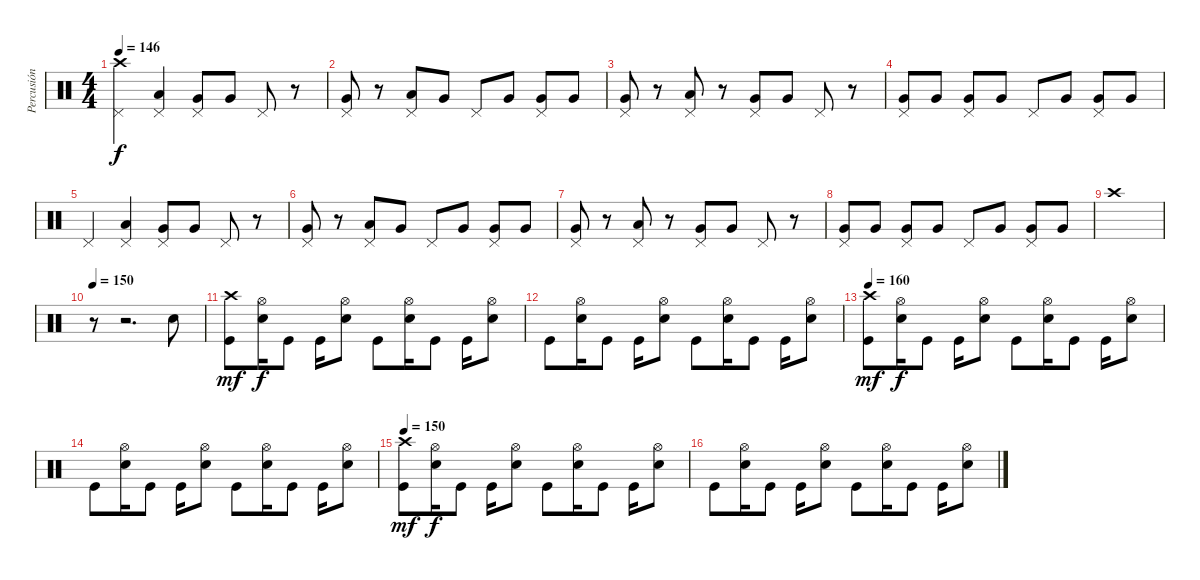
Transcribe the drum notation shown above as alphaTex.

\track ("Percusión" "Percusión") {instrument percussion}
\staff {score}
\articulation defaults
\ts (4 4)
\tempo 146
\clef neutral
\ks c
("Pedal Hi-Hat (hit)" "Crash high (hit)").4{dy f} ("Pedal Hi-Hat (hit)" "Low Tom (hit)").4 ("Pedal Hi-Hat (hit)" "Very Low Tom (hit)").8 "Very Low Tom (hit)".8 "Pedal Hi-Hat (hit)".8 r.8 |
("Pedal Hi-Hat (hit)" "Very Low Tom (hit)").8 r.8 ("Pedal Hi-Hat (hit)" "Low Tom (hit)").8 "Very Low Tom (hit)".8 "Pedal Hi-Hat (hit)".8 "Very Low Tom (hit)".8 ("Pedal Hi-Hat (hit)" "Very Low Tom (hit)").8 "Very Low Tom (hit)".8 |
("Pedal Hi-Hat (hit)" "Very Low Tom (hit)").8 r.8 ("Pedal Hi-Hat (hit)" "Low Tom (hit)").8 r.8 ("Pedal Hi-Hat (hit)" "Very Low Tom (hit)").8 "Very Low Tom (hit)".8 "Pedal Hi-Hat (hit)".8 r.8 |
("Pedal Hi-Hat (hit)" "Very Low Tom (hit)").8 "Very Low Tom (hit)".8 ("Pedal Hi-Hat (hit)" "Very Low Tom (hit)").8 "Very Low Tom (hit)".8 "Pedal Hi-Hat (hit)".8 "Very Low Tom (hit)".8 ("Pedal Hi-Hat (hit)" "Very Low Tom (hit)").8 "Very Low Tom (hit)".8 |
"Pedal Hi-Hat (hit)".4 ("Pedal Hi-Hat (hit)" "Low Tom (hit)").4 ("Pedal Hi-Hat (hit)" "Very Low Tom (hit)").8 "Very Low Tom (hit)".8 "Pedal Hi-Hat (hit)".8 r.8 |
("Pedal Hi-Hat (hit)" "Very Low Tom (hit)").8 r.8 ("Pedal Hi-Hat (hit)" "Low Tom (hit)").8 "Very Low Tom (hit)".8 "Pedal Hi-Hat (hit)".8 "Very Low Tom (hit)".8 ("Pedal Hi-Hat (hit)" "Very Low Tom (hit)").8 "Very Low Tom (hit)".8 |
("Pedal Hi-Hat (hit)" "Very Low Tom (hit)").8 r.8 ("Pedal Hi-Hat (hit)" "Low Tom (hit)").8 r.8 ("Pedal Hi-Hat (hit)" "Very Low Tom (hit)").8 "Very Low Tom (hit)".8 "Pedal Hi-Hat (hit)".8 r.8 |
("Pedal Hi-Hat (hit)" "Very Low Tom (hit)").8 "Very Low Tom (hit)".8 ("Pedal Hi-Hat (hit)" "Very Low Tom (hit)").8 "Very Low Tom (hit)".8 "Pedal Hi-Hat (hit)".8 "Very Low Tom (hit)".8 ("Pedal Hi-Hat (hit)" "Very Low Tom (hit)").8 "Very Low Tom (hit)".8 |
"Crash high (hit)".1 |
\tempo 150
r.8 r.2{d} "Snare (hit) 2".8 |
("Kick (hit)" "Crash high (hit)").8{dy mf} ("Snare (hit) 2" "Hi-Hat (open)").16{dy f} "Kick (hit)".8 "Kick (hit)".16 ("Snare (hit) 2" "Hi-Hat (open)").8 "Kick (hit)".8 ("Snare (hit) 2" "Hi-Hat (open)").16 "Kick (hit)".8 "Kick (hit)".16 ("Snare (hit) 2" "Hi-Hat (open)").8 |
"Kick (hit)".8 ("Snare (hit) 2" "Hi-Hat (open)").16 "Kick (hit)".8 "Kick (hit)".16 ("Snare (hit) 2" "Hi-Hat (open)").8 "Kick (hit)".8 ("Snare (hit) 2" "Hi-Hat (open)").16 "Kick (hit)".8 "Kick (hit)".16 ("Snare (hit) 2" "Hi-Hat (open)").8 |
\tempo 160
("Kick (hit)" "Crash high (hit)").8{dy mf} ("Snare (hit) 2" "Hi-Hat (open)").16{dy f} "Kick (hit)".8 "Kick (hit)".16 ("Snare (hit) 2" "Hi-Hat (open)").8 "Kick (hit)".8 ("Snare (hit) 2" "Hi-Hat (open)").16 "Kick (hit)".8 "Kick (hit)".16 ("Snare (hit) 2" "Hi-Hat (open)").8 |
"Kick (hit)".8 ("Snare (hit) 2" "Hi-Hat (open)").16 "Kick (hit)".8 "Kick (hit)".16 ("Snare (hit) 2" "Hi-Hat (open)").8 "Kick (hit)".8 ("Snare (hit) 2" "Hi-Hat (open)").16 "Kick (hit)".8 "Kick (hit)".16 ("Snare (hit) 2" "Hi-Hat (open)").8 |
\tempo 150
("Kick (hit)" "Crash high (hit)").8{dy mf} ("Snare (hit) 2" "Hi-Hat (open)").16{dy f} "Kick (hit)".8 "Kick (hit)".16 ("Snare (hit) 2" "Hi-Hat (open)").8 "Kick (hit)".8 ("Snare (hit) 2" "Hi-Hat (open)").16 "Kick (hit)".8 "Kick (hit)".16 ("Snare (hit) 2" "Hi-Hat (open)").8 |
"Kick (hit)".8 ("Snare (hit) 2" "Hi-Hat (open)").16 "Kick (hit)".8 "Kick (hit)".16 ("Snare (hit) 2" "Hi-Hat (open)").8 "Kick (hit)".8 ("Snare (hit) 2" "Hi-Hat (open)").16 "Kick (hit)".8 "Kick (hit)".16 ("Snare (hit) 2" "Hi-Hat (open)").8
